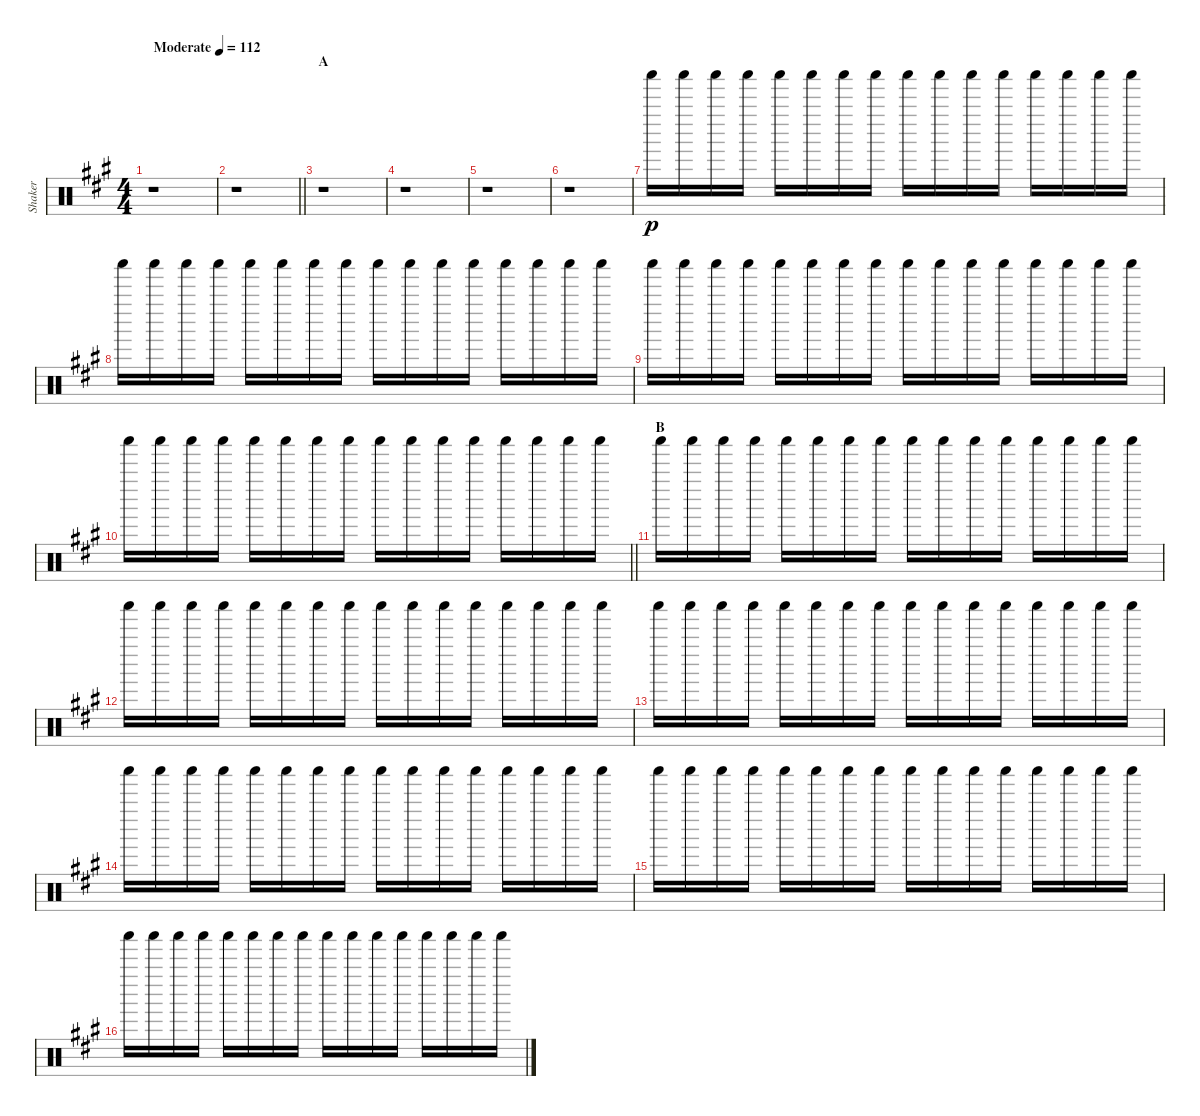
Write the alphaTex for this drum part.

\track ("Shaker" "Shaker") {instrument percussion}
\staff {score}
\articulation defaults
\ts (4 4)
\tempo (112 "Moderate")
\clef neutral
\ks a
r.1{dy p} |
\barLineRight lightlight
r.1 |
\section ("" "A")
r.1 |
r.1 |
r.1 |
r.1 |
"Shaker (hit)".16 "Shaker (hit)".16 "Shaker (hit)".16 "Shaker (hit)".16 "Shaker (hit)".16 "Shaker (hit)".16 "Shaker (hit)".16 "Shaker (hit)".16 "Shaker (hit)".16 "Shaker (hit)".16 "Shaker (hit)".16 "Shaker (hit)".16 "Shaker (hit)".16 "Shaker (hit)".16 "Shaker (hit)".16 "Shaker (hit)".16 |
"Shaker (hit)".16 "Shaker (hit)".16 "Shaker (hit)".16 "Shaker (hit)".16 "Shaker (hit)".16 "Shaker (hit)".16 "Shaker (hit)".16 "Shaker (hit)".16 "Shaker (hit)".16 "Shaker (hit)".16 "Shaker (hit)".16 "Shaker (hit)".16 "Shaker (hit)".16 "Shaker (hit)".16 "Shaker (hit)".16 "Shaker (hit)".16 |
"Shaker (hit)".16 "Shaker (hit)".16 "Shaker (hit)".16 "Shaker (hit)".16 "Shaker (hit)".16 "Shaker (hit)".16 "Shaker (hit)".16 "Shaker (hit)".16 "Shaker (hit)".16 "Shaker (hit)".16 "Shaker (hit)".16 "Shaker (hit)".16 "Shaker (hit)".16 "Shaker (hit)".16 "Shaker (hit)".16 "Shaker (hit)".16 |
\barLineRight lightlight "Shaker (hit)".16 "Shaker (hit)".16 "Shaker (hit)".16 "Shaker (hit)".16 "Shaker (hit)".16 "Shaker (hit)".16 "Shaker (hit)".16 "Shaker (hit)".16 "Shaker (hit)".16 "Shaker (hit)".16 "Shaker (hit)".16 "Shaker (hit)".16 "Shaker (hit)".16 "Shaker (hit)".16 "Shaker (hit)".16 "Shaker (hit)".16
|
\section ("" "B")
"Shaker (hit)".16 "Shaker (hit)".16 "Shaker (hit)".16 "Shaker (hit)".16 "Shaker (hit)".16 "Shaker (hit)".16 "Shaker (hit)".16 "Shaker (hit)".16 "Shaker (hit)".16 "Shaker (hit)".16 "Shaker (hit)".16 "Shaker (hit)".16 "Shaker (hit)".16 "Shaker (hit)".16 "Shaker (hit)".16 "Shaker (hit)".16 |
"Shaker (hit)".16 "Shaker (hit)".16 "Shaker (hit)".16 "Shaker (hit)".16 "Shaker (hit)".16 "Shaker (hit)".16 "Shaker (hit)".16 "Shaker (hit)".16 "Shaker (hit)".16 "Shaker (hit)".16 "Shaker (hit)".16 "Shaker (hit)".16 "Shaker (hit)".16 "Shaker (hit)".16 "Shaker (hit)".16 "Shaker (hit)".16 |
"Shaker (hit)".16 "Shaker (hit)".16 "Shaker (hit)".16 "Shaker (hit)".16 "Shaker (hit)".16 "Shaker (hit)".16 "Shaker (hit)".16 "Shaker (hit)".16 "Shaker (hit)".16 "Shaker (hit)".16 "Shaker (hit)".16 "Shaker (hit)".16 "Shaker (hit)".16 "Shaker (hit)".16 "Shaker (hit)".16 "Shaker (hit)".16 |
"Shaker (hit)".16 "Shaker (hit)".16 "Shaker (hit)".16 "Shaker (hit)".16 "Shaker (hit)".16 "Shaker (hit)".16 "Shaker (hit)".16 "Shaker (hit)".16 "Shaker (hit)".16 "Shaker (hit)".16 "Shaker (hit)".16 "Shaker (hit)".16 "Shaker (hit)".16 "Shaker (hit)".16 "Shaker (hit)".16 "Shaker (hit)".16 |
"Shaker (hit)".16 "Shaker (hit)".16 "Shaker (hit)".16 "Shaker (hit)".16 "Shaker (hit)".16 "Shaker (hit)".16 "Shaker (hit)".16 "Shaker (hit)".16 "Shaker (hit)".16 "Shaker (hit)".16 "Shaker (hit)".16 "Shaker (hit)".16 "Shaker (hit)".16 "Shaker (hit)".16 "Shaker (hit)".16 "Shaker (hit)".16 |
"Shaker (hit)".16 "Shaker (hit)".16 "Shaker (hit)".16 "Shaker (hit)".16 "Shaker (hit)".16 "Shaker (hit)".16 "Shaker (hit)".16 "Shaker (hit)".16 "Shaker (hit)".16 "Shaker (hit)".16 "Shaker (hit)".16 "Shaker (hit)".16 "Shaker (hit)".16 "Shaker (hit)".16 "Shaker (hit)".16 "Shaker (hit)".16
